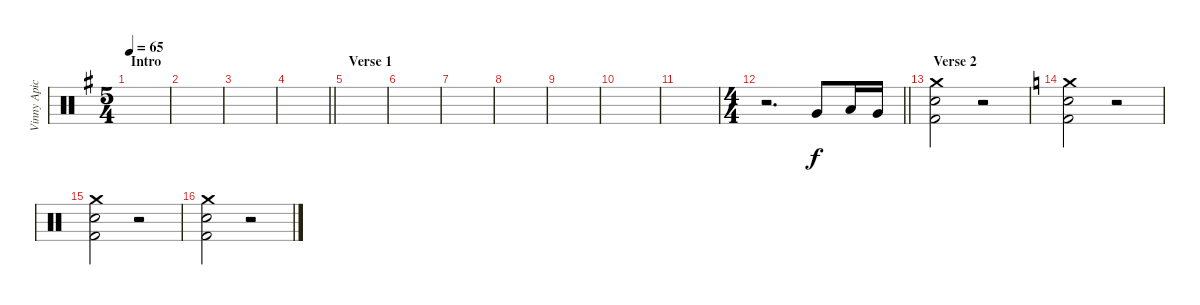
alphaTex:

\track ("Vinny Apice" "Vinny Apic") {instrument percussion}
\staff {score}
\articulation defaults
\ts (5 4)
\section ("" "Intro")
\tempo 65
\clef neutral
\ks g
|
|
|
\barLineRight lightlight
|
\section ("" "Verse 1")
|
|
|
|
|
|
|
\ts (4 4)
\barLineRight lightlight
r.2{d} "Very Low Tom (hit)".8 "Low Floor Tom (hit)".16 "Very Low Tom (hit)".16 |
\section ("" " Verse 2")
("Crash medium (hit)" "Snare (hit) 2" "Kick (hit) 2").2 r.2 |
\ks c
("Crash medium (hit)" "Snare (hit) 2" "Kick (hit) 2").2 r.2 |
("Crash medium (hit)" "Snare (hit) 2" "Kick (hit) 2").2 r.2 |
("Crash medium (hit)" "Snare (hit) 2" "Kick (hit) 2").2 r.2
